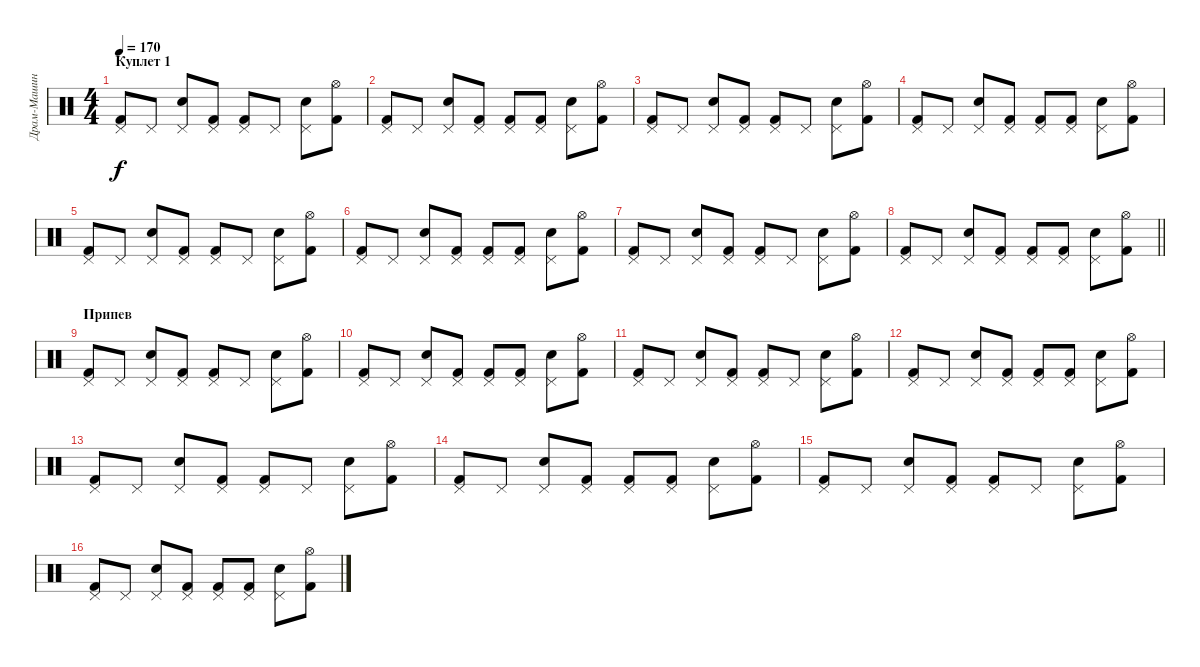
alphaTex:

\track ("Драм-Машина" "Драм-Машин") {instrument percussion}
\staff {score}
\articulation defaults
\ts (4 4)
\section ("" "Куплет 1")
\tempo 170
\clef neutral
\ks c
("Pedal Hi-Hat (hit)" "Kick (hit) 2").8{dy f} "Pedal Hi-Hat (hit)".8 ("Pedal Hi-Hat (hit)" "Electric Snare (hit)").8 ("Pedal Hi-Hat (hit)" "Kick (hit) 2").8 ("Pedal Hi-Hat (hit)" "Kick (hit) 2").8 "Pedal Hi-Hat (hit)".8 ("Pedal Hi-Hat (hit)" "Electric Snare (hit)").8 ("Hi-Hat (open)" "Kick (hit) 2").8 |
("Pedal Hi-Hat (hit)" "Kick (hit) 2").8 "Pedal Hi-Hat (hit)".8 ("Pedal Hi-Hat (hit)" "Electric Snare (hit)").8 ("Pedal Hi-Hat (hit)" "Kick (hit) 2").8 ("Pedal Hi-Hat (hit)" "Kick (hit) 2").8 ("Pedal Hi-Hat (hit)" "Kick (hit) 2").8 ("Pedal Hi-Hat (hit)" "Electric Snare (hit)").8 ("Hi-Hat (open)" "Kick (hit) 2").8 |
("Pedal Hi-Hat (hit)" "Kick (hit) 2").8 "Pedal Hi-Hat (hit)".8 ("Pedal Hi-Hat (hit)" "Electric Snare (hit)").8 ("Pedal Hi-Hat (hit)" "Kick (hit) 2").8 ("Pedal Hi-Hat (hit)" "Kick (hit) 2").8 "Pedal Hi-Hat (hit)".8 ("Pedal Hi-Hat (hit)" "Electric Snare (hit)").8 ("Hi-Hat (open)" "Kick (hit) 2").8 |
("Pedal Hi-Hat (hit)" "Kick (hit) 2").8 "Pedal Hi-Hat (hit)".8 ("Pedal Hi-Hat (hit)" "Electric Snare (hit)").8 ("Pedal Hi-Hat (hit)" "Kick (hit) 2").8 ("Pedal Hi-Hat (hit)" "Kick (hit) 2").8 ("Pedal Hi-Hat (hit)" "Kick (hit) 2").8 ("Pedal Hi-Hat (hit)" "Electric Snare (hit)").8 ("Hi-Hat (open)" "Kick (hit) 2").8 |
("Pedal Hi-Hat (hit)" "Kick (hit) 2").8 "Pedal Hi-Hat (hit)".8 ("Pedal Hi-Hat (hit)" "Electric Snare (hit)").8 ("Pedal Hi-Hat (hit)" "Kick (hit) 2").8 ("Pedal Hi-Hat (hit)" "Kick (hit) 2").8 "Pedal Hi-Hat (hit)".8 ("Pedal Hi-Hat (hit)" "Electric Snare (hit)").8 ("Hi-Hat (open)" "Kick (hit) 2").8 |
("Pedal Hi-Hat (hit)" "Kick (hit) 2").8 "Pedal Hi-Hat (hit)".8 ("Pedal Hi-Hat (hit)" "Electric Snare (hit)").8 ("Pedal Hi-Hat (hit)" "Kick (hit) 2").8 ("Pedal Hi-Hat (hit)" "Kick (hit) 2").8 ("Pedal Hi-Hat (hit)" "Kick (hit) 2").8 ("Pedal Hi-Hat (hit)" "Electric Snare (hit)").8 ("Hi-Hat (open)" "Kick (hit) 2").8 |
("Pedal Hi-Hat (hit)" "Kick (hit) 2").8 "Pedal Hi-Hat (hit)".8 ("Pedal Hi-Hat (hit)" "Electric Snare (hit)").8 ("Pedal Hi-Hat (hit)" "Kick (hit) 2").8 ("Pedal Hi-Hat (hit)" "Kick (hit) 2").8 "Pedal Hi-Hat (hit)".8 ("Pedal Hi-Hat (hit)" "Electric Snare (hit)").8 ("Hi-Hat (open)" "Kick (hit) 2").8 |
\barLineRight lightlight
("Pedal Hi-Hat (hit)" "Kick (hit) 2").8 "Pedal Hi-Hat (hit)".8 ("Pedal Hi-Hat (hit)" "Electric Snare (hit)").8 ("Pedal Hi-Hat (hit)" "Kick (hit) 2").8 ("Pedal Hi-Hat (hit)" "Kick (hit) 2").8 ("Pedal Hi-Hat (hit)" "Kick (hit) 2").8 ("Pedal Hi-Hat (hit)" "Electric Snare (hit)").8 ("Hi-Hat (open)" "Kick (hit) 2").8 |
\section ("" "Припев")
("Pedal Hi-Hat (hit)" "Kick (hit) 2").8 "Pedal Hi-Hat (hit)".8 ("Pedal Hi-Hat (hit)" "Electric Snare (hit)").8 ("Pedal Hi-Hat (hit)" "Kick (hit) 2").8 ("Pedal Hi-Hat (hit)" "Kick (hit) 2").8 "Pedal Hi-Hat (hit)".8 ("Pedal Hi-Hat (hit)" "Electric Snare (hit)").8 ("Hi-Hat (open)" "Kick (hit) 2").8 |
("Pedal Hi-Hat (hit)" "Kick (hit) 2").8 "Pedal Hi-Hat (hit)".8 ("Pedal Hi-Hat (hit)" "Electric Snare (hit)").8 ("Pedal Hi-Hat (hit)" "Kick (hit) 2").8 ("Pedal Hi-Hat (hit)" "Kick (hit) 2").8 ("Pedal Hi-Hat (hit)" "Kick (hit) 2").8 ("Pedal Hi-Hat (hit)" "Electric Snare (hit)").8 ("Hi-Hat (open)" "Kick (hit) 2").8 |
("Pedal Hi-Hat (hit)" "Kick (hit) 2").8 "Pedal Hi-Hat (hit)".8 ("Pedal Hi-Hat (hit)" "Electric Snare (hit)").8 ("Pedal Hi-Hat (hit)" "Kick (hit) 2").8 ("Pedal Hi-Hat (hit)" "Kick (hit) 2").8 "Pedal Hi-Hat (hit)".8 ("Pedal Hi-Hat (hit)" "Electric Snare (hit)").8 ("Hi-Hat (open)" "Kick (hit) 2").8 |
("Pedal Hi-Hat (hit)" "Kick (hit) 2").8 "Pedal Hi-Hat (hit)".8 ("Pedal Hi-Hat (hit)" "Electric Snare (hit)").8 ("Pedal Hi-Hat (hit)" "Kick (hit) 2").8 ("Pedal Hi-Hat (hit)" "Kick (hit) 2").8 ("Pedal Hi-Hat (hit)" "Kick (hit) 2").8 ("Pedal Hi-Hat (hit)" "Electric Snare (hit)").8 ("Hi-Hat (open)" "Kick (hit) 2").8 |
("Pedal Hi-Hat (hit)" "Kick (hit) 2").8 "Pedal Hi-Hat (hit)".8 ("Pedal Hi-Hat (hit)" "Electric Snare (hit)").8 ("Pedal Hi-Hat (hit)" "Kick (hit) 2").8 ("Pedal Hi-Hat (hit)" "Kick (hit) 2").8 "Pedal Hi-Hat (hit)".8 ("Pedal Hi-Hat (hit)" "Electric Snare (hit)").8 ("Hi-Hat (open)" "Kick (hit) 2").8 |
("Pedal Hi-Hat (hit)" "Kick (hit) 2").8 "Pedal Hi-Hat (hit)".8 ("Pedal Hi-Hat (hit)" "Electric Snare (hit)").8 ("Pedal Hi-Hat (hit)" "Kick (hit) 2").8 ("Pedal Hi-Hat (hit)" "Kick (hit) 2").8 ("Pedal Hi-Hat (hit)" "Kick (hit) 2").8 ("Pedal Hi-Hat (hit)" "Electric Snare (hit)").8 ("Hi-Hat (open)" "Kick (hit) 2").8 |
("Pedal Hi-Hat (hit)" "Kick (hit) 2").8 "Pedal Hi-Hat (hit)".8 ("Pedal Hi-Hat (hit)" "Electric Snare (hit)").8 ("Pedal Hi-Hat (hit)" "Kick (hit) 2").8 ("Pedal Hi-Hat (hit)" "Kick (hit) 2").8 "Pedal Hi-Hat (hit)".8 ("Pedal Hi-Hat (hit)" "Electric Snare (hit)").8 ("Hi-Hat (open)" "Kick (hit) 2").8 |
("Pedal Hi-Hat (hit)" "Kick (hit) 2").8 "Pedal Hi-Hat (hit)".8 ("Pedal Hi-Hat (hit)" "Electric Snare (hit)").8 ("Pedal Hi-Hat (hit)" "Kick (hit) 2").8 ("Pedal Hi-Hat (hit)" "Kick (hit) 2").8 ("Pedal Hi-Hat (hit)" "Kick (hit) 2").8 ("Pedal Hi-Hat (hit)" "Electric Snare (hit)").8 ("Hi-Hat (open)" "Kick (hit) 2").8
